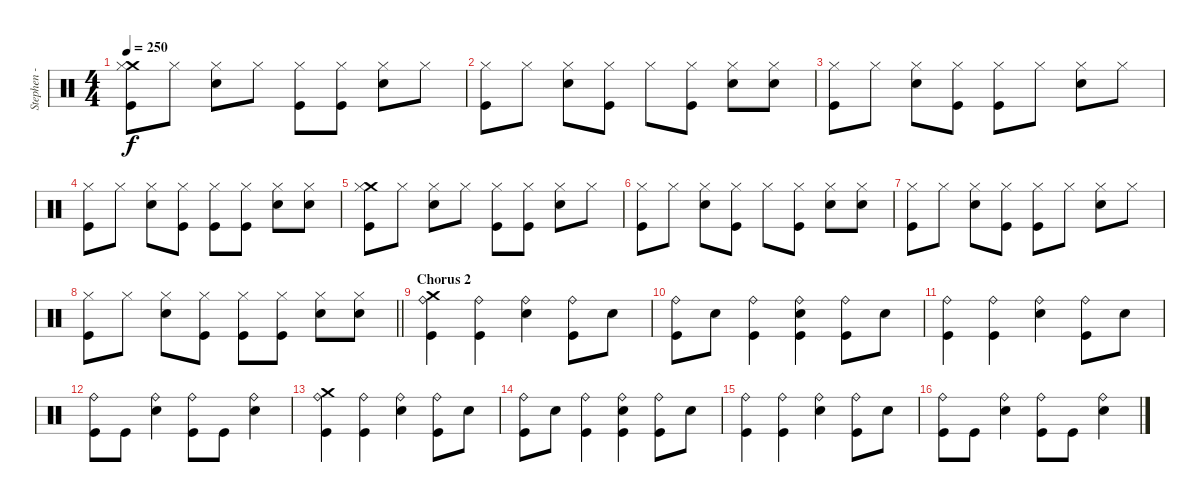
\track ("Stephen - Drums" "Stephen - ") {instrument percussion}
\staff {score}
\articulation defaults
\ts (4 4)
\tempo 250
\clef neutral
\ks c
("Crash medium (hit)" "Hi-Hat (closed)" "Kick (hit)").8{dy f} "Hi-Hat (closed)".8 ("Hi-Hat (closed)" "Snare (hit) 2").8 "Hi-Hat (closed)".8 ("Hi-Hat (closed)" "Kick (hit)").8 ("Hi-Hat (closed)" "Kick (hit)").8 ("Hi-Hat (closed)" "Snare (hit) 2").8 "Hi-Hat (closed)".8 |
("Hi-Hat (closed)" "Kick (hit)").8 "Hi-Hat (closed)".8 ("Hi-Hat (closed)" "Snare (hit) 2").8 ("Hi-Hat (closed)" "Kick (hit)").8 "Hi-Hat (closed)".8 ("Hi-Hat (closed)" "Kick (hit)").8 ("Hi-Hat (closed)" "Snare (hit) 2").8 ("Hi-Hat (closed)" "Snare (hit) 2").8 |
("Hi-Hat (closed)" "Kick (hit)").8 "Hi-Hat (closed)".8 ("Hi-Hat (closed)" "Snare (hit) 2").8 ("Hi-Hat (closed)" "Kick (hit)").8 ("Hi-Hat (closed)" "Kick (hit)").8 "Hi-Hat (closed)".8 ("Hi-Hat (closed)" "Snare (hit) 2").8 "Hi-Hat (closed)".8 |
("Hi-Hat (closed)" "Kick (hit)").8 "Hi-Hat (closed)".8 ("Hi-Hat (closed)" "Snare (hit) 2").8 ("Hi-Hat (closed)" "Kick (hit)").8 ("Hi-Hat (closed)" "Kick (hit)").8 ("Hi-Hat (closed)" "Kick (hit)").8 ("Hi-Hat (closed)" "Snare (hit) 2").8 ("Hi-Hat (closed)" "Snare (hit) 2").8 |
("Crash medium (hit)" "Hi-Hat (closed)" "Kick (hit)").8 "Hi-Hat (closed)".8 ("Hi-Hat (closed)" "Snare (hit) 2").8 "Hi-Hat (closed)".8 ("Hi-Hat (closed)" "Kick (hit)").8 ("Hi-Hat (closed)" "Kick (hit)").8 ("Hi-Hat (closed)" "Snare (hit) 2").8 "Hi-Hat (closed)".8 |
("Hi-Hat (closed)" "Kick (hit)").8 "Hi-Hat (closed)".8 ("Hi-Hat (closed)" "Snare (hit) 2").8 ("Hi-Hat (closed)" "Kick (hit)").8 "Hi-Hat (closed)".8 ("Hi-Hat (closed)" "Kick (hit)").8 ("Hi-Hat (closed)" "Snare (hit) 2").8 ("Hi-Hat (closed)" "Snare (hit) 2").8 |
("Hi-Hat (closed)" "Kick (hit)").8 "Hi-Hat (closed)".8 ("Hi-Hat (closed)" "Snare (hit) 2").8 ("Hi-Hat (closed)" "Kick (hit)").8 ("Hi-Hat (closed)" "Kick (hit)").8 "Hi-Hat (closed)".8 ("Hi-Hat (closed)" "Snare (hit) 2").8 "Hi-Hat (closed)".8 |
\barLineRight lightlight
("Hi-Hat (closed)" "Kick (hit)").8 "Hi-Hat (closed)".8 ("Hi-Hat (closed)" "Snare (hit) 2").8 ("Hi-Hat (closed)" "Kick (hit)").8 ("Hi-Hat (closed)" "Kick (hit)").8 ("Hi-Hat (closed)" "Kick (hit)").8 ("Hi-Hat (closed)" "Snare (hit) 2").8 ("Hi-Hat (closed)" "Snare (hit) 2").8 |
\section ("" "Chorus 2")
("Crash medium (hit)" "Ride (bell)" "Kick (hit)").4 ("Ride (bell)" "Kick (hit)").4 ("Snare (hit) 2" "Ride (bell)").4 ("Ride (bell)" "Kick (hit)").8 "Snare (hit) 2".8 |
("Ride (bell)" "Kick (hit)").8 "Snare (hit) 2".8 ("Ride (bell)" "Kick (hit)").4 ("Snare (hit) 2" "Ride (bell)" "Kick (hit)").4 ("Ride (bell)" "Kick (hit)").8 "Snare (hit) 2".8 |
("Ride (bell)" "Kick (hit)").4 ("Ride (bell)" "Kick (hit)").4 ("Snare (hit) 2" "Ride (bell)").4 ("Ride (bell)" "Kick (hit)").8 "Snare (hit) 2".8 |
("Ride (bell)" "Kick (hit)").8 "Kick (hit)".8 ("Snare (hit) 2" "Ride (bell)").4 ("Ride (bell)" "Kick (hit)").8 "Kick (hit)".8 ("Snare (hit) 2" "Ride (bell)").4 |
("Crash medium (hit)" "Ride (bell)" "Kick (hit)").4 ("Ride (bell)" "Kick (hit)").4 ("Snare (hit) 2" "Ride (bell)").4 ("Ride (bell)" "Kick (hit)").8 "Snare (hit) 2".8 |
("Ride (bell)" "Kick (hit)").8 "Snare (hit) 2".8 ("Ride (bell)" "Kick (hit)").4 ("Snare (hit) 2" "Ride (bell)" "Kick (hit)").4 ("Ride (bell)" "Kick (hit)").8 "Snare (hit) 2".8 |
("Ride (bell)" "Kick (hit)").4 ("Ride (bell)" "Kick (hit)").4 ("Snare (hit) 2" "Ride (bell)").4 ("Ride (bell)" "Kick (hit)").8 "Snare (hit) 2".8 |
("Ride (bell)" "Kick (hit)").8 "Kick (hit)".8 ("Snare (hit) 2" "Ride (bell)").4 ("Ride (bell)" "Kick (hit)").8 "Kick (hit)".8 ("Snare (hit) 2" "Ride (bell)").4
